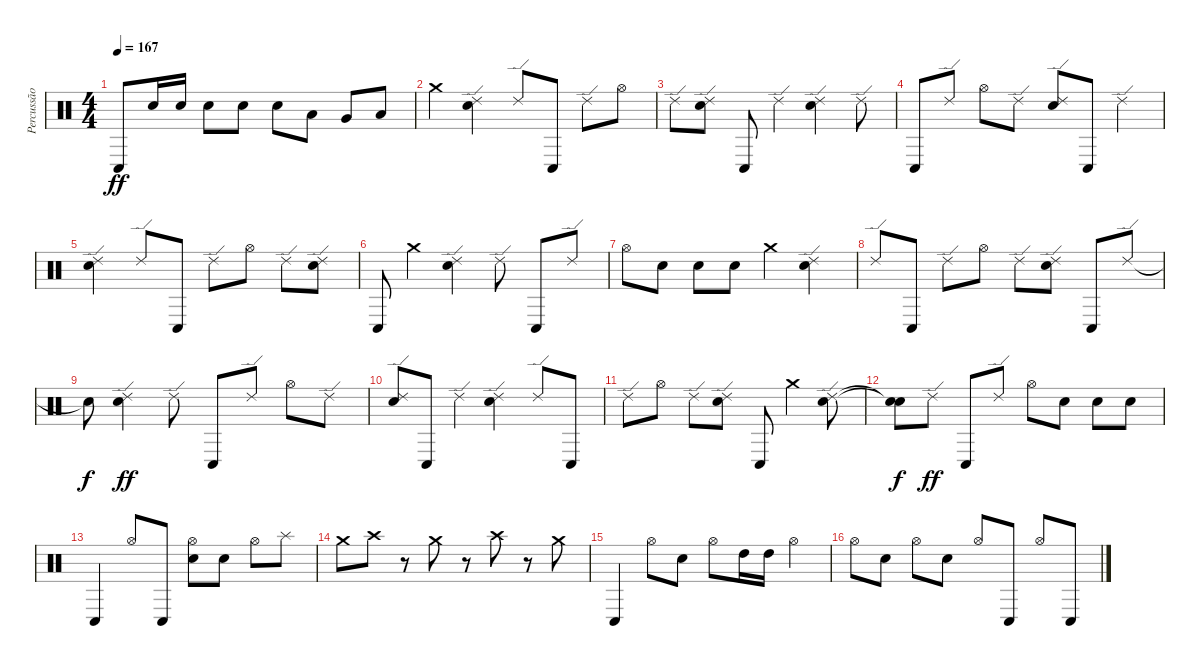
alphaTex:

\track ("Percussão" "Percussão") {instrument percussion}
\staff {score}
\articulation defaults
\ts (4 4)
\tempo 167
\clef neutral
\ks c "Conga low (hit)".8{dy ff} "Electric Snare (hit)".16 "Electric Snare (hit)".16 "Electric Snare (hit)".8 "Electric Snare (hit)".8 "Electric Snare (hit)".8 "Low Tom (hit)".8 "Very Low Tom (hit)".8 "Low Floor Tom (hit)".8
|
"Crash medium (hit)".4 ("Electric Snare (hit)" "Ride (edge) 2").4 "Ride (edge) 2".8 "Conga low (hit)".8 "Ride (edge) 2".8 "Hi-Hat (open)".8 |
"Ride (edge) 2".8 ("Electric Snare (hit)" "Ride (edge) 2").8 "Conga low (hit)".8 "Ride (edge) 2".4 ("Electric Snare (hit)" "Ride (edge) 2").4 "Ride (edge) 2".8 |
"Conga low (hit)".8 "Ride (edge) 2".8 "Hi-Hat (open)".8 "Ride (edge) 2".8 ("Electric Snare (hit)" "Ride (edge) 2").8 "Conga low (hit)".8 "Ride (edge) 2".4 |
("Electric Snare (hit)" "Ride (edge) 2").4 "Ride (edge) 2".8 "Conga low (hit)".8 "Ride (edge) 2".8 "Hi-Hat (open)".8 "Ride (edge) 2".8 ("Electric Snare (hit)" "Ride (edge) 2").8 |
"Conga low (hit)".8 "Crash medium (hit)".4 ("Electric Snare (hit)" "Ride (edge) 2").4 "Ride (edge) 2".8 "Conga low (hit)".8 "Ride (edge) 2".8 |
"Hi-Hat (open)".8 "Electric Snare (hit)".8 "Electric Snare (hit)".8 "Electric Snare (hit)".8 "Crash medium (hit)".4 ("Electric Snare (hit)" "Ride (edge) 2").4 |
"Ride (edge) 2".8 "Conga low (hit)".8 "Ride (edge) 2".8 "Hi-Hat (open)".8 "Ride (edge) 2".8 ("Electric Snare (hit)" "Ride (edge) 2").8 "Conga low (hit)".8 "Ride (edge) 2".8 |
"Snare (hit)"{t}.8{dy f} ("Electric Snare (hit)" "Ride (edge) 2").4{dy ff} "Ride (edge) 2".8 "Conga low (hit)".8 "Ride (edge) 2".8 "Hi-Hat (open)".8 "Ride (edge) 2".8 |
("Electric Snare (hit)" "Ride (edge) 2").8 "Conga low (hit)".8 "Ride (edge) 2".4 ("Electric Snare (hit)" "Ride (edge) 2").4 "Ride (edge) 2".8 "Conga low (hit)".8 |
"Ride (edge) 2".8 "Hi-Hat (open)".8 "Ride (edge) 2".8 ("Electric Snare (hit)" "Ride (edge) 2").8 "Conga low (hit)".8 "Crash medium (hit)".4 ("Electric Snare (hit)" "Ride (edge) 2").8 |
("Snare (hit)"{t} "Snare (hit)"{t}).8{dy f} "Ride (edge) 2".8{dy ff} "Conga low (hit)".8 "Ride (edge) 2".8 "Hi-Hat (open)".8 "Electric Snare (hit)".8 "Electric Snare (hit)".8 "Electric Snare (hit)".8 |
"Conga low (hit)".4 "Hi-Hat (open)".8 "Conga low (hit)".8 ("Electric Snare (hit)" "Hi-Hat (open)").8 "Electric Snare (hit)".8 "Hi-Hat (open)".8 "Splash (hit)".8 |
"Crash medium (hit)".8 "Crash high (hit)".8 r.8 "Crash medium (hit)".8 r.8 "Crash high (hit)".8 r.8 "Crash medium (hit)".8 |
"Conga low (hit)".4 "Hi-Hat (open)".8 "Electric Snare (hit)".8 "Hi-Hat (open)".8 "High Tom (hit)".16 "High Tom (hit)".16 "Hi-Hat (open)".4 |
"Hi-Hat (open)".8 "Electric Snare (hit)".8 "Hi-Hat (open)".8 "Electric Snare (hit)".8 "Hi-Hat (open)".8 "Conga low (hit)".8 "Hi-Hat (open)".8 "Conga low (hit)".8
